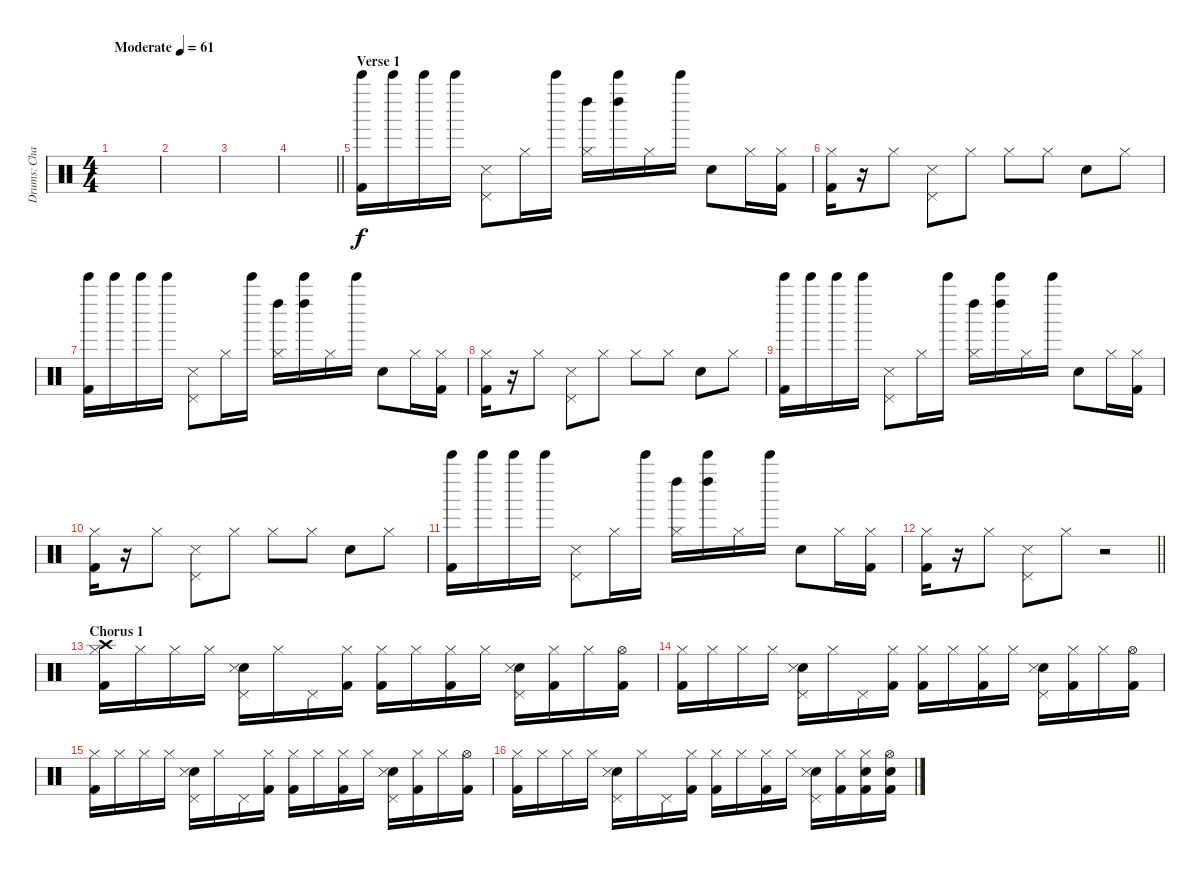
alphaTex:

\track ("Drums: Charlie Sierra" "Drums: Cha") {instrument percussion}
\staff {score}
\articulation defaults
\ts (4 4)
\tempo (61 "Moderate")
\clef neutral
\ks c
|
|
|
\barLineRight lightlight
|
\section ("" "Verse 1")
("Bell Tree (hit)" "Kick (hit) 2").16 "Bell Tree (hit)".16 "Bell Tree (hit)".16 "Bell Tree (hit)".16 ("Pedal Hi-Hat (hit)" "Snare (side stick) 3").8 "Hi-Hat (closed)".16 "Bell Tree (hit)".16 ("Hi-Hat (closed)" "Left Maraca (hit)").16 ("Bell Tree (hit)" "Left Maraca (hit)").16 "Hi-Hat (closed)".16 "Bell Tree (hit)".16 "Snare (hit) 2".8 "Hi-Hat (closed)".16 ("Hi-Hat (closed)" "Kick (hit) 2").16 |
("Hi-Hat (closed)" "Kick (hit) 2").16 r.16 "Hi-Hat (closed)".8 ("Pedal Hi-Hat (hit)" "Snare (side stick) 3").8 "Hi-Hat (closed)".8 "Hi-Hat (closed)".8 "Hi-Hat (closed)".8 "Snare (hit) 2".8 "Hi-Hat (closed)".8 |
("Bell Tree (hit)" "Kick (hit) 2").16 "Bell Tree (hit)".16 "Bell Tree (hit)".16 "Bell Tree (hit)".16 ("Pedal Hi-Hat (hit)" "Snare (side stick) 3").8 "Hi-Hat (closed)".16 "Bell Tree (hit)".16 ("Hi-Hat (closed)" "Left Maraca (hit)").16 ("Bell Tree (hit)" "Left Maraca (hit)").16 "Hi-Hat (closed)".16 "Bell Tree (hit)".16 "Snare (hit) 2".8 "Hi-Hat (closed)".16 ("Hi-Hat (closed)" "Kick (hit) 2").16 |
("Hi-Hat (closed)" "Kick (hit) 2").16 r.16 "Hi-Hat (closed)".8 ("Pedal Hi-Hat (hit)" "Snare (side stick) 3").8 "Hi-Hat (closed)".8 "Hi-Hat (closed)".8 "Hi-Hat (closed)".8 "Snare (hit) 2".8 "Hi-Hat (closed)".8 |
("Bell Tree (hit)" "Kick (hit) 2").16 "Bell Tree (hit)".16 "Bell Tree (hit)".16 "Bell Tree (hit)".16 ("Pedal Hi-Hat (hit)" "Snare (side stick) 3").8 "Hi-Hat (closed)".16 "Bell Tree (hit)".16 ("Hi-Hat (closed)" "Left Maraca (hit)").16 ("Bell Tree (hit)" "Left Maraca (hit)").16 "Hi-Hat (closed)".16 "Bell Tree (hit)".16 "Snare (hit) 2".8 "Hi-Hat (closed)".16 ("Hi-Hat (closed)" "Kick (hit) 2").16 |
("Hi-Hat (closed)" "Kick (hit) 2").16 r.16 "Hi-Hat (closed)".8 ("Pedal Hi-Hat (hit)" "Snare (side stick) 3").8 "Hi-Hat (closed)".8 "Hi-Hat (closed)".8 "Hi-Hat (closed)".8 "Snare (hit) 2".8 "Hi-Hat (closed)".8 |
("Bell Tree (hit)" "Kick (hit) 2").16 "Bell Tree (hit)".16 "Bell Tree (hit)".16 "Bell Tree (hit)".16 ("Pedal Hi-Hat (hit)" "Snare (side stick) 3").8 "Hi-Hat (closed)".16 "Bell Tree (hit)".16 ("Hi-Hat (closed)" "Left Maraca (hit)").16 ("Bell Tree (hit)" "Left Maraca (hit)").16 "Hi-Hat (closed)".16 "Bell Tree (hit)".16 "Snare (hit) 2".8 "Hi-Hat (closed)".16 ("Hi-Hat (closed)" "Kick (hit) 2").16 |
\barLineRight lightlight
("Hi-Hat (closed)" "Kick (hit) 2").16 r.16 "Hi-Hat (closed)".8 ("Pedal Hi-Hat (hit)" "Snare (side stick) 3").8 "Hi-Hat (closed)".8 r.2 |
\section ("" "Chorus 1")
("Crash high (hit)" "Hi-Hat (closed)" "Kick (hit) 2").16 "Hi-Hat (closed)".16 "Hi-Hat (closed)".16 "Hi-Hat (closed)".16 ("Pedal Hi-Hat (hit)" "Snare (hit) 2" "Snare (side stick) 3").16 "Hi-Hat (closed)".16 "Pedal Hi-Hat (hit)".16 ("Hi-Hat (closed)" "Kick (hit) 2").16 ("Hi-Hat (closed)" "Kick (hit) 2").16 "Hi-Hat (closed)".16 ("Hi-Hat (closed)" "Kick (hit) 2").16 "Hi-Hat (closed)".16 ("Pedal Hi-Hat (hit)" "Snare (hit) 2" "Snare (side stick) 3").16 ("Hi-Hat (closed)" "Kick (hit) 2").16 "Hi-Hat (closed)".16 ("Hi-Hat (open)" "Kick (hit) 2").16 |
("Hi-Hat (closed)" "Kick (hit) 2").16 "Hi-Hat (closed)".16 "Hi-Hat (closed)".16 "Hi-Hat (closed)".16 ("Pedal Hi-Hat (hit)" "Snare (hit) 2" "Snare (side stick) 3").16 "Hi-Hat (closed)".16 "Pedal Hi-Hat (hit)".16 ("Hi-Hat (closed)" "Kick (hit) 2").16 ("Hi-Hat (closed)" "Kick (hit) 2").16 "Hi-Hat (closed)".16 ("Hi-Hat (closed)" "Kick (hit) 2").16 "Hi-Hat (closed)".16 ("Pedal Hi-Hat (hit)" "Snare (hit) 2" "Snare (side stick) 3").16 ("Hi-Hat (closed)" "Kick (hit) 2").16 "Hi-Hat (closed)".16 ("Hi-Hat (open)" "Kick (hit) 2").16 |
("Hi-Hat (closed)" "Kick (hit) 2").16 "Hi-Hat (closed)".16 "Hi-Hat (closed)".16 "Hi-Hat (closed)".16 ("Pedal Hi-Hat (hit)" "Snare (hit) 2" "Snare (side stick) 3").16 "Hi-Hat (closed)".16 "Pedal Hi-Hat (hit)".16 ("Hi-Hat (closed)" "Kick (hit) 2").16 ("Hi-Hat (closed)" "Kick (hit) 2").16 "Hi-Hat (closed)".16 ("Hi-Hat (closed)" "Kick (hit) 2").16 "Hi-Hat (closed)".16 ("Pedal Hi-Hat (hit)" "Snare (hit) 2" "Snare (side stick) 3").16 ("Hi-Hat (closed)" "Kick (hit) 2").16 "Hi-Hat (closed)".16 ("Hi-Hat (open)" "Kick (hit) 2").16 |
("Hi-Hat (closed)" "Kick (hit) 2").16 "Hi-Hat (closed)".16 "Hi-Hat (closed)".16 "Hi-Hat (closed)".16 ("Pedal Hi-Hat (hit)" "Snare (hit) 2" "Snare (side stick) 3").16 "Hi-Hat (closed)".16 "Pedal Hi-Hat (hit)".16 ("Hi-Hat (closed)" "Kick (hit) 2").16 ("Hi-Hat (closed)" "Kick (hit) 2").16 "Hi-Hat (closed)".16 ("Hi-Hat (closed)" "Kick (hit) 2").16 "Hi-Hat (closed)".16 ("Pedal Hi-Hat (hit)" "Snare (hit) 2" "Snare (side stick) 3").16 ("Hi-Hat (closed)" "Kick (hit) 2").16 ("Hi-Hat (closed)" "Snare (hit) 2" "Kick (hit) 2").16 ("Hi-Hat (open)" "Snare (hit) 2" "Kick (hit) 2").16
